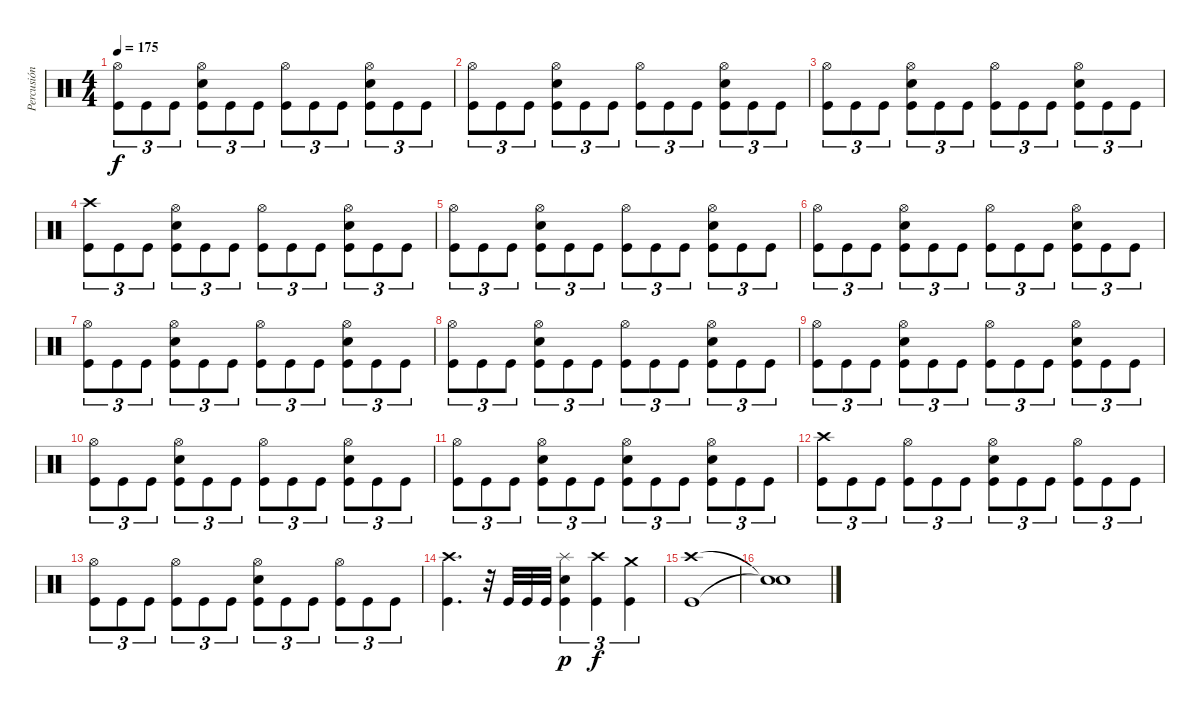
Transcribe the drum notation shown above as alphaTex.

\track ("Percusión" "Percusión") {instrument percussion}
\staff {score}
\articulation defaults
\ts (4 4)
\tempo 175
\clef neutral
\ks c
("Hi-Hat (open)" "Kick (hit)").8{tu (3 2) dy f} "Kick (hit)".8{tu (3 2)} "Kick (hit)".8{tu (3 2)} ("Hi-Hat (open)" "Snare (hit) 2" "Kick (hit)").8{tu (3 2)} "Kick (hit)".8{tu (3 2)} "Kick (hit)".8{tu (3 2)} ("Hi-Hat (open)" "Kick (hit)").8{tu (3 2)} "Kick (hit)".8{tu (3 2)} "Kick (hit)".8{tu (3 2)} ("Hi-Hat (open)" "Snare (hit) 2" "Kick (hit)").8{tu (3 2)} "Kick (hit)".8{tu (3 2)} "Kick (hit)".8{tu (3 2)} |
("Hi-Hat (open)" "Kick (hit)").8{tu (3 2)} "Kick (hit)".8{tu (3 2)} "Kick (hit)".8{tu (3 2)} ("Hi-Hat (open)" "Snare (hit) 2" "Kick (hit)").8{tu (3 2)} "Kick (hit)".8{tu (3 2)} "Kick (hit)".8{tu (3 2)} ("Hi-Hat (open)" "Kick (hit)").8{tu (3 2)} "Kick (hit)".8{tu (3 2)} "Kick (hit)".8{tu (3 2)} ("Hi-Hat (open)" "Snare (hit) 2" "Kick (hit)").8{tu (3 2)} "Kick (hit)".8{tu (3 2)} "Kick (hit)".8{tu (3 2)} |
("Hi-Hat (open)" "Kick (hit)").8{tu (3 2)} "Kick (hit)".8{tu (3 2)} "Kick (hit)".8{tu (3 2)} ("Hi-Hat (open)" "Snare (hit) 2" "Kick (hit)").8{tu (3 2)} "Kick (hit)".8{tu (3 2)} "Kick (hit)".8{tu (3 2)} ("Hi-Hat (open)" "Kick (hit)").8{tu (3 2)} "Kick (hit)".8{tu (3 2)} "Kick (hit)".8{tu (3 2)} ("Hi-Hat (open)" "Snare (hit) 2" "Kick (hit)").8{tu (3 2)} "Kick (hit)".8{tu (3 2)} "Kick (hit)".8{tu (3 2)} |
("Crash high (hit)" "Kick (hit)").8{tu (3 2)} "Kick (hit)".8{tu (3 2)} "Kick (hit)".8{tu (3 2)} ("Hi-Hat (open)" "Snare (hit) 2" "Kick (hit)").8{tu (3 2)} "Kick (hit)".8{tu (3 2)} "Kick (hit)".8{tu (3 2)} ("Hi-Hat (open)" "Kick (hit)").8{tu (3 2)} "Kick (hit)".8{tu (3 2)} "Kick (hit)".8{tu (3 2)} ("Hi-Hat (open)" "Snare (hit) 2" "Kick (hit)").8{tu (3 2)} "Kick (hit)".8{tu (3 2)} "Kick (hit)".8{tu (3 2)} |
("Hi-Hat (open)" "Kick (hit)").8{tu (3 2)} "Kick (hit)".8{tu (3 2)} "Kick (hit)".8{tu (3 2)} ("Hi-Hat (open)" "Snare (hit) 2" "Kick (hit)").8{tu (3 2)} "Kick (hit)".8{tu (3 2)} "Kick (hit)".8{tu (3 2)} ("Hi-Hat (open)" "Kick (hit)").8{tu (3 2)} "Kick (hit)".8{tu (3 2)} "Kick (hit)".8{tu (3 2)} ("Hi-Hat (open)" "Snare (hit) 2" "Kick (hit)").8{tu (3 2)} "Kick (hit)".8{tu (3 2)} "Kick (hit)".8{tu (3 2)} |
("Hi-Hat (open)" "Kick (hit)").8{tu (3 2)} "Kick (hit)".8{tu (3 2)} "Kick (hit)".8{tu (3 2)} ("Hi-Hat (open)" "Snare (hit) 2" "Kick (hit)").8{tu (3 2)} "Kick (hit)".8{tu (3 2)} "Kick (hit)".8{tu (3 2)} ("Hi-Hat (open)" "Kick (hit)").8{tu (3 2)} "Kick (hit)".8{tu (3 2)} "Kick (hit)".8{tu (3 2)} ("Hi-Hat (open)" "Snare (hit) 2" "Kick (hit)").8{tu (3 2)} "Kick (hit)".8{tu (3 2)} "Kick (hit)".8{tu (3 2)} |
("Hi-Hat (open)" "Kick (hit)").8{tu (3 2)} "Kick (hit)".8{tu (3 2)} "Kick (hit)".8{tu (3 2)} ("Hi-Hat (open)" "Snare (hit) 2" "Kick (hit)").8{tu (3 2)} "Kick (hit)".8{tu (3 2)} "Kick (hit)".8{tu (3 2)} ("Hi-Hat (open)" "Kick (hit)").8{tu (3 2)} "Kick (hit)".8{tu (3 2)} "Kick (hit)".8{tu (3 2)} ("Hi-Hat (open)" "Snare (hit) 2" "Kick (hit)").8{tu (3 2)} "Kick (hit)".8{tu (3 2)} "Kick (hit)".8{tu (3 2)} |
("Hi-Hat (open)" "Kick (hit)").8{tu (3 2)} "Kick (hit)".8{tu (3 2)} "Kick (hit)".8{tu (3 2)} ("Hi-Hat (open)" "Snare (hit) 2" "Kick (hit)").8{tu (3 2)} "Kick (hit)".8{tu (3 2)} "Kick (hit)".8{tu (3 2)} ("Hi-Hat (open)" "Kick (hit)").8{tu (3 2)} "Kick (hit)".8{tu (3 2)} "Kick (hit)".8{tu (3 2)} ("Hi-Hat (open)" "Snare (hit) 2" "Kick (hit)").8{tu (3 2)} "Kick (hit)".8{tu (3 2)} "Kick (hit)".8{tu (3 2)} |
("Hi-Hat (open)" "Kick (hit)").8{tu (3 2)} "Kick (hit)".8{tu (3 2)} "Kick (hit)".8{tu (3 2)} ("Hi-Hat (open)" "Snare (hit) 2" "Kick (hit)").8{tu (3 2)} "Kick (hit)".8{tu (3 2)} "Kick (hit)".8{tu (3 2)} ("Hi-Hat (open)" "Kick (hit)").8{tu (3 2)} "Kick (hit)".8{tu (3 2)} "Kick (hit)".8{tu (3 2)} ("Hi-Hat (open)" "Snare (hit) 2" "Kick (hit)").8{tu (3 2)} "Kick (hit)".8{tu (3 2)} "Kick (hit)".8{tu (3 2)} |
("Hi-Hat (open)" "Kick (hit)").8{tu (3 2)} "Kick (hit)".8{tu (3 2)} "Kick (hit)".8{tu (3 2)} ("Hi-Hat (open)" "Snare (hit) 2" "Kick (hit)").8{tu (3 2)} "Kick (hit)".8{tu (3 2)} "Kick (hit)".8{tu (3 2)} ("Hi-Hat (open)" "Kick (hit)").8{tu (3 2)} "Kick (hit)".8{tu (3 2)} "Kick (hit)".8{tu (3 2)} ("Hi-Hat (open)" "Snare (hit) 2" "Kick (hit)").8{tu (3 2)} "Kick (hit)".8{tu (3 2)} "Kick (hit)".8{tu (3 2)} |
("Hi-Hat (open)" "Kick (hit)").8{tu (3 2)} "Kick (hit)".8{tu (3 2)} "Kick (hit)".8{tu (3 2)} ("Hi-Hat (open)" "Snare (hit) 2" "Kick (hit)").8{tu (3 2)} "Kick (hit)".8{tu (3 2)} "Kick (hit)".8{tu (3 2)} ("Hi-Hat (open)" "Snare (hit) 2" "Kick (hit)").8{tu (3 2)} "Kick (hit)".8{tu (3 2)} "Kick (hit)".8{tu (3 2)} ("Hi-Hat (open)" "Snare (hit) 2" "Kick (hit)").8{tu (3 2)} "Kick (hit)".8{tu (3 2)} "Kick (hit)".8{tu (3 2)} |
("Crash high (hit)" "Kick (hit)").8{tu (3 2)} "Kick (hit)".8{tu (3 2)} "Kick (hit)".8{tu (3 2)} ("Hi-Hat (open)" "Kick (hit)").8{tu (3 2)} "Kick (hit)".8{tu (3 2)} "Kick (hit)".8{tu (3 2)} ("Hi-Hat (open)" "Snare (hit) 2" "Kick (hit)").8{tu (3 2)} "Kick (hit)".8{tu (3 2)} "Kick (hit)".8{tu (3 2)} ("Hi-Hat (open)" "Kick (hit)").8{tu (3 2)} "Kick (hit)".8{tu (3 2)} "Kick (hit)".8{tu (3 2)} |
("Hi-Hat (open)" "Kick (hit)").8{tu (3 2)} "Kick (hit)".8{tu (3 2)} "Kick (hit)".8{tu (3 2)} ("Hi-Hat (open)" "Kick (hit)").8{tu (3 2)} "Kick (hit)".8{tu (3 2)} "Kick (hit)".8{tu (3 2)} ("Hi-Hat (open)" "Snare (hit) 2" "Kick (hit)").8{tu (3 2)} "Kick (hit)".8{tu (3 2)} "Kick (hit)".8{tu (3 2)} ("Hi-Hat (open)" "Kick (hit)").8{tu (3 2)} "Kick (hit)".8{tu (3 2)} "Kick (hit)".8{tu (3 2)} |
("Crash high (hit)" "Kick (hit)").4{d} r.32 "Kick (hit)".32 "Kick (hit)".32 "Kick (hit)".32 ("Splash (hit)" "Snare (hit) 2" "Kick (hit)").4{tu (3 2) dy p} ("Crash high (hit)" "Kick (hit)").4{tu (3 2) dy f} ("Crash medium (hit)" "Kick (hit)").4{tu (3 2)} |
("Crash high (hit)" "Kick (hit)").1 |
("Snare (hit)"{t} "Snare (hit)"{t}).1
